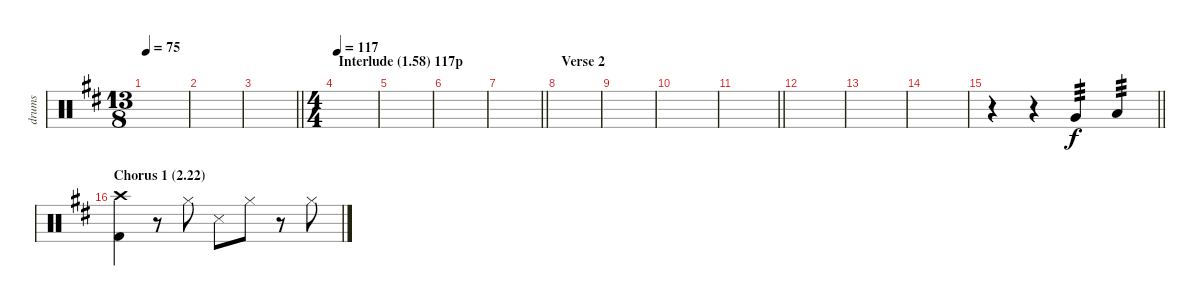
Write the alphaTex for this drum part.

\track ("drums" "drums") {instrument percussion}
\staff {score}
\articulation defaults
\ts (13 8)
\tempo 75
\clef neutral
\ks d
|
|
\barLineRight lightlight
|
\ts (4 4)
\section ("" "Interlude (1.58) 117p")
\tempo 117
|
|
|
\barLineRight lightlight
|
\section ("" "Verse 2")
|
|
|
\barLineRight lightlight
|
|
|
|
\barLineRight lightlight
r.4 r.4 "Very Low Tom (hit)".4{tp 3} "Low Floor Tom (hit)".4{tp 3} |
\section ("" "Chorus 1 (2.22)")
("Crash high (hit)" "Kick (hit) 2").4 r.8 "Hi-Hat (closed)".8 "Snare (side stick) 3".8 "Hi-Hat (closed)".8 r.8 "Hi-Hat (closed)".8
